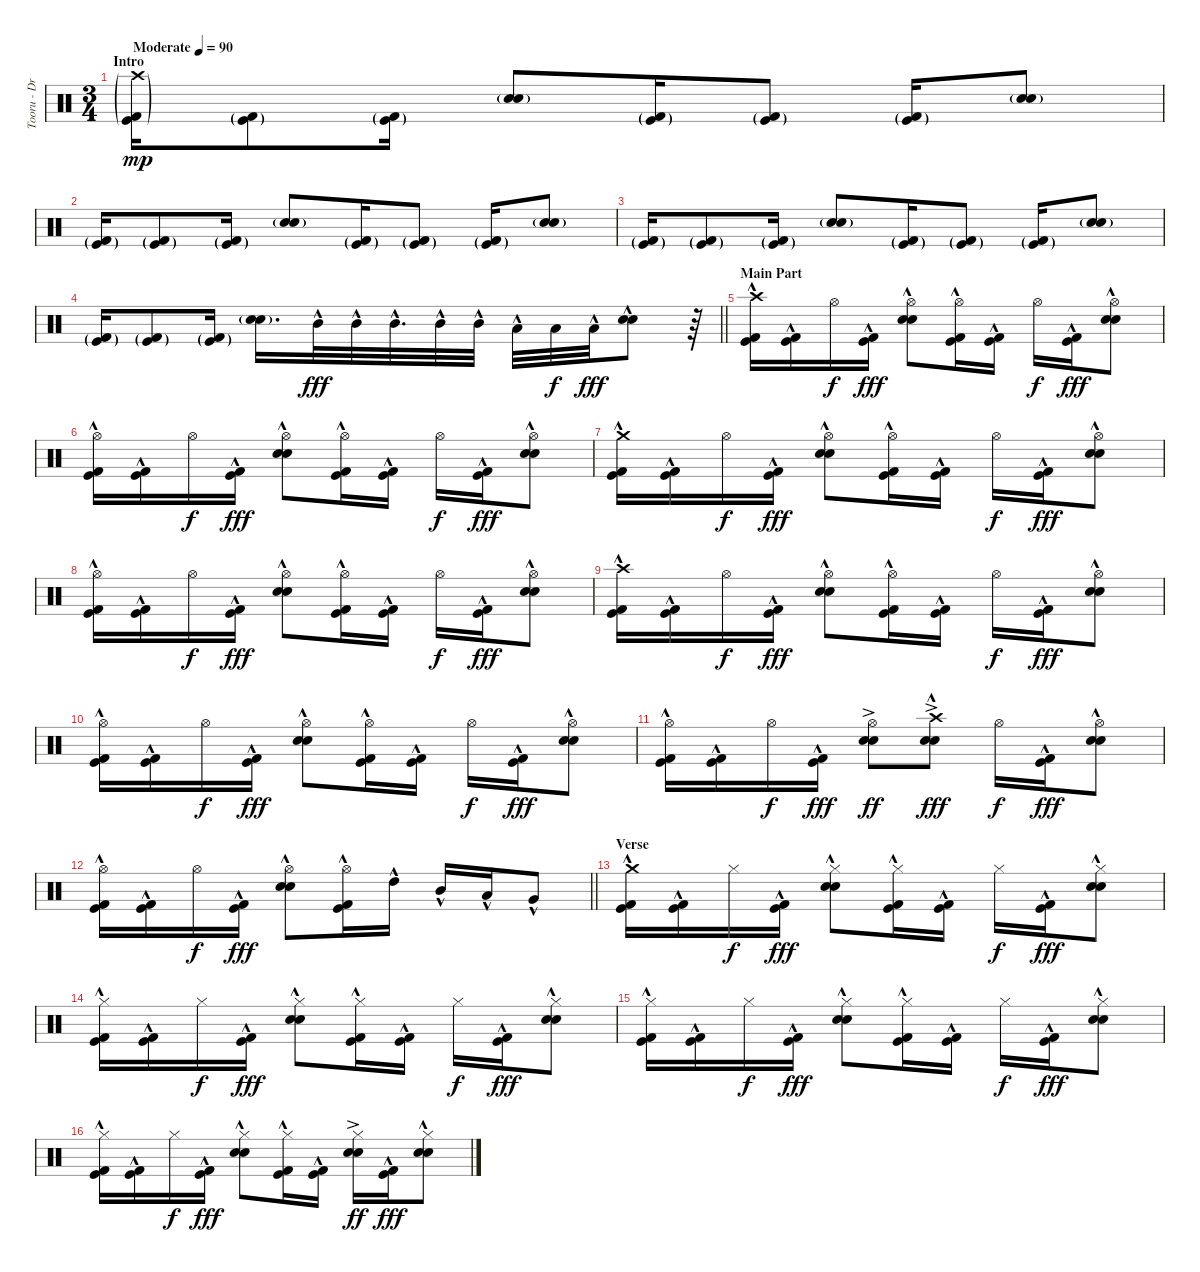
\track ("Tooru - Drums" "Tooru - Dr") {instrument percussion}
\staff {score}
\articulation defaults
\ts (3 4)
\section ("" "Intro")
\tempo (90 "Moderate")
\clef neutral
\ks c
("Crash high (hit)"{g} "Kick (hit)"{g} "Kick (hit) 2"{g}).16{dy mp volume 7} ("Kick (hit)"{g} "Kick (hit) 2"{g}).8 ("Kick (hit)"{g} "Kick (hit) 2"{g}).16 ("Electric Snare (hit)"{g} "Snare (hit) 2"{g}).8 ("Kick (hit)"{g} "Kick (hit) 2"{g}).16 ("Kick (hit)"{g} "Kick (hit) 2"{g}).8 ("Kick (hit)"{g} "Kick (hit) 2"{g}).16 ("Electric Snare (hit)"{g} "Snare (hit) 2"{g}).8 |
("Kick (hit)"{g} "Kick (hit) 2"{g}).16 ("Kick (hit)"{g} "Kick (hit) 2"{g}).8 ("Kick (hit)"{g} "Kick (hit) 2"{g}).16 ("Electric Snare (hit)"{g} "Snare (hit) 2"{g}).8 ("Kick (hit)"{g} "Kick (hit) 2"{g}).16 ("Kick (hit)"{g} "Kick (hit) 2"{g}).8 ("Kick (hit)"{g} "Kick (hit) 2"{g}).16 ("Electric Snare (hit)"{g} "Snare (hit) 2"{g}).8 |
("Kick (hit)"{g} "Kick (hit) 2"{g}).16 ("Kick (hit)"{g} "Kick (hit) 2"{g}).8 ("Kick (hit)"{g} "Kick (hit) 2"{g}).16 ("Electric Snare (hit)"{g} "Snare (hit) 2"{g}).8 ("Kick (hit)"{g} "Kick (hit) 2"{g}).16 ("Kick (hit)"{g} "Kick (hit) 2"{g}).8 ("Kick (hit)"{g} "Kick (hit) 2"{g}).16 ("Electric Snare (hit)"{g} "Snare (hit) 2"{g}).8 |
\barLineRight lightlight
("Kick (hit)"{g} "Kick (hit) 2"{g}).16 ("Kick (hit)"{g} "Kick (hit) 2"{g}).8 ("Kick (hit)"{g} "Kick (hit) 2"{g}).16 ("Electric Snare (hit)"{g} "Snare (hit) 2"{g}).16{d} "Mid Tom (hit)"{hac}.32{dy fff volume 16} "Mid Tom (hit)"{hac}.32 "Mid Tom (hit)"{hac}.32{d} "Mid Tom (hit)"{hac}.32 "Mid Tom (hit)"{hac}.32 "Low Tom (hit)"{hac}.32 "Low Tom (hit)".32{dy f} "Low Tom (hit)"{hac}.32{dy fff} ("Snare (hit) 2"{hac} "Electric Snare (hit)"{hac}).8 r.64 |
\section ("" "Main Part")
("Crash high (hit)"{hac} "Kick (hit)"{hac} "Kick (hit) 2"{hac}).16 ("Kick (hit)"{hac} "Kick (hit) 2"{hac}).16 "Hi-Hat (open)".16{dy f} ("Kick (hit)"{hac} "Kick (hit) 2"{hac}).16{dy fff} ("Hi-Hat (open)" "Electric Snare (hit)"{hac} "Snare (hit) 2"{hac}).8 ("Hi-Hat (open)" "Kick (hit)"{hac} "Kick (hit) 2"{hac}).16 ("Kick (hit)"{hac} "Kick (hit) 2"{hac}).16 "Hi-Hat (open)".16{dy f} ("Kick (hit)"{hac} "Kick (hit) 2"{hac}).16{dy fff} ("Hi-Hat (open)" "Electric Snare (hit)"{hac} "Snare (hit) 2"{hac}).8 |
("Hi-Hat (open)" "Kick (hit)"{hac} "Kick (hit) 2"{hac}).16 ("Kick (hit)"{hac} "Kick (hit) 2"{hac}).16 "Hi-Hat (open)".16{dy f} ("Kick (hit)"{hac} "Kick (hit) 2"{hac}).16{dy fff} ("Hi-Hat (open)" "Electric Snare (hit)"{hac} "Snare (hit) 2"{hac}).8 ("Hi-Hat (open)" "Kick (hit)"{hac} "Kick (hit) 2"{hac}).16 ("Kick (hit)"{hac} "Kick (hit) 2"{hac}).16 "Hi-Hat (open)".16{dy f} ("Kick (hit)"{hac} "Kick (hit) 2"{hac}).16{dy fff} ("Hi-Hat (open)" "Electric Snare (hit)"{hac} "Snare (hit) 2"{hac}).8 |
("Crash medium (hit)"{hac} "Kick (hit)"{hac} "Kick (hit) 2"{hac}).16 ("Kick (hit)"{hac} "Kick (hit) 2"{hac}).16 "Hi-Hat (open)".16{dy f} ("Kick (hit)"{hac} "Kick (hit) 2"{hac}).16{dy fff} ("Hi-Hat (open)" "Electric Snare (hit)"{hac} "Snare (hit) 2"{hac}).8 ("Hi-Hat (open)" "Kick (hit)"{hac} "Kick (hit) 2"{hac}).16 ("Kick (hit)"{hac} "Kick (hit) 2"{hac}).16 "Hi-Hat (open)".16{dy f} ("Kick (hit)"{hac} "Kick (hit) 2"{hac}).16{dy fff} ("Hi-Hat (open)" "Electric Snare (hit)"{hac} "Snare (hit) 2"{hac}).8 |
("Hi-Hat (open)" "Kick (hit)"{hac} "Kick (hit) 2"{hac}).16 ("Kick (hit)"{hac} "Kick (hit) 2"{hac}).16 "Hi-Hat (open)".16{dy f} ("Kick (hit)"{hac} "Kick (hit) 2"{hac}).16{dy fff} ("Hi-Hat (open)" "Electric Snare (hit)"{hac} "Snare (hit) 2"{hac}).8 ("Hi-Hat (open)" "Kick (hit)"{hac} "Kick (hit) 2"{hac}).16 ("Kick (hit)"{hac} "Kick (hit) 2"{hac}).16 "Hi-Hat (open)".16{dy f} ("Kick (hit)"{hac} "Kick (hit) 2"{hac}).16{dy fff} ("Hi-Hat (open)" "Electric Snare (hit)"{hac} "Snare (hit) 2"{hac}).8 |
("Crash high (hit)"{hac} "Kick (hit)"{hac} "Kick (hit) 2"{hac}).16 ("Kick (hit)"{hac} "Kick (hit) 2"{hac}).16 "Hi-Hat (open)".16{dy f} ("Kick (hit)"{hac} "Kick (hit) 2"{hac}).16{dy fff} ("Hi-Hat (open)" "Electric Snare (hit)"{hac} "Snare (hit) 2"{hac}).8 ("Hi-Hat (open)" "Kick (hit)"{hac} "Kick (hit) 2"{hac}).16 ("Kick (hit)"{hac} "Kick (hit) 2"{hac}).16 "Hi-Hat (open)".16{dy f} ("Kick (hit)"{hac} "Kick (hit) 2"{hac}).16{dy fff} ("Hi-Hat (open)" "Electric Snare (hit)"{hac} "Snare (hit) 2"{hac}).8 |
("Hi-Hat (open)" "Kick (hit)"{hac} "Kick (hit) 2"{hac}).16 ("Kick (hit)"{hac} "Kick (hit) 2"{hac}).16 "Hi-Hat (open)".16{dy f} ("Kick (hit)"{hac} "Kick (hit) 2"{hac}).16{dy fff} ("Hi-Hat (open)" "Electric Snare (hit)"{hac} "Snare (hit) 2"{hac}).8 ("Hi-Hat (open)" "Kick (hit)"{hac} "Kick (hit) 2"{hac}).16 ("Kick (hit)"{hac} "Kick (hit) 2"{hac}).16 "Hi-Hat (open)".16{dy f} ("Kick (hit)"{hac} "Kick (hit) 2"{hac}).16{dy fff} ("Hi-Hat (open)" "Electric Snare (hit)"{hac} "Snare (hit) 2"{hac}).8 |
("Hi-Hat (open)" "Kick (hit)"{hac} "Kick (hit) 2"{hac}).16 ("Kick (hit)"{hac} "Kick (hit) 2"{hac}).16 "Hi-Hat (open)".16{dy f} ("Kick (hit)"{hac} "Kick (hit) 2"{hac}).16{dy fff} ("Hi-Hat (open)"{ac} "Electric Snare (hit)"{ac} "Snare (hit) 2"{ac}).8{dy ff} ("Crash high (hit)"{ac} "Electric Snare (hit)"{hac} "Snare (hit) 2"{hac}).8{dy fff} "Hi-Hat (open)".16{dy f} ("Kick (hit)"{hac} "Kick (hit) 2"{hac}).16{dy fff} ("Hi-Hat (open)" "Electric Snare (hit)"{hac} "Snare (hit) 2"{hac}).8 |
\barLineRight lightlight
("Hi-Hat (open)" "Kick (hit)"{hac} "Kick (hit) 2"{hac}).16 ("Kick (hit)"{hac} "Kick (hit) 2"{hac}).16 "Hi-Hat (open)".16{dy f} ("Kick (hit)"{hac} "Kick (hit) 2"{hac}).16{dy fff} ("Hi-Hat (open)" "Electric Snare (hit)"{hac} "Snare (hit) 2"{hac}).8 ("Hi-Hat (open)" "Kick (hit)"{hac} "Kick (hit) 2"{hac}).16 "High Tom (hit)"{hac}.16 "Mid Tom (hit)"{hac}.16 "Low Tom (hit)"{hac}.16 "Very Low Tom (hit)"{hac}.8 |
\section ("" "Verse")
("Crash medium (hit)" "Kick (hit)"{hac} "Kick (hit) 2"{hac}).16 ("Kick (hit)"{hac} "Kick (hit) 2"{hac}).16 "Hi-Hat (closed)".16{dy f} ("Kick (hit)"{hac} "Kick (hit) 2"{hac}).16{dy fff} ("Hi-Hat (closed)" "Electric Snare (hit)"{hac} "Snare (hit) 2"{hac}).8 ("Hi-Hat (closed)" "Kick (hit)"{hac} "Kick (hit) 2"{hac}).16 ("Kick (hit)"{hac} "Kick (hit) 2"{hac}).16 "Hi-Hat (closed)".16{dy f} ("Kick (hit)"{hac} "Kick (hit) 2"{hac}).16{dy fff} ("Hi-Hat (closed)" "Electric Snare (hit)"{hac} "Snare (hit) 2"{hac}).8 |
("Hi-Hat (closed)" "Kick (hit)"{hac} "Kick (hit) 2"{hac}).16 ("Kick (hit)"{hac} "Kick (hit) 2"{hac}).16 "Hi-Hat (closed)".16{dy f} ("Kick (hit)"{hac} "Kick (hit) 2"{hac}).16{dy fff} ("Hi-Hat (closed)" "Electric Snare (hit)"{hac} "Snare (hit) 2"{hac}).8 ("Hi-Hat (closed)" "Kick (hit)"{hac} "Kick (hit) 2"{hac}).16 ("Kick (hit)"{hac} "Kick (hit) 2"{hac}).16 "Hi-Hat (closed)".16{dy f} ("Kick (hit)"{hac} "Kick (hit) 2"{hac}).16{dy fff} ("Hi-Hat (closed)" "Electric Snare (hit)"{hac} "Snare (hit) 2"{hac}).8 |
("Hi-Hat (closed)" "Kick (hit)"{hac} "Kick (hit) 2"{hac}).16 ("Kick (hit)"{hac} "Kick (hit) 2"{hac}).16 "Hi-Hat (closed)".16{dy f} ("Kick (hit)"{hac} "Kick (hit) 2"{hac}).16{dy fff} ("Hi-Hat (closed)" "Electric Snare (hit)"{hac} "Snare (hit) 2"{hac}).8 ("Hi-Hat (closed)" "Kick (hit)"{hac} "Kick (hit) 2"{hac}).16 ("Kick (hit)"{hac} "Kick (hit) 2"{hac}).16 "Hi-Hat (closed)".16{dy f} ("Kick (hit)"{hac} "Kick (hit) 2"{hac}).16{dy fff} ("Hi-Hat (closed)" "Electric Snare (hit)"{hac} "Snare (hit) 2"{hac}).8 |
("Hi-Hat (closed)" "Kick (hit)"{hac} "Kick (hit) 2"{hac}).16 ("Kick (hit)"{hac} "Kick (hit) 2"{hac}).16 "Hi-Hat (closed)".16{dy f} ("Kick (hit)"{hac} "Kick (hit) 2"{hac}).16{dy fff} ("Hi-Hat (closed)" "Electric Snare (hit)"{hac} "Snare (hit) 2"{hac}).8 ("Hi-Hat (closed)" "Kick (hit)"{hac} "Kick (hit) 2"{hac}).16 ("Kick (hit)"{hac} "Kick (hit) 2"{hac}).16 ("Hi-Hat (closed)" "Electric Snare (hit)"{ac} "Snare (hit) 2"{ac}).16{dy ff} ("Kick (hit)"{hac} "Kick (hit) 2"{hac}).16{dy fff} ("Hi-Hat (closed)" "Electric Snare (hit)"{hac} "Snare (hit) 2"{hac}).8
